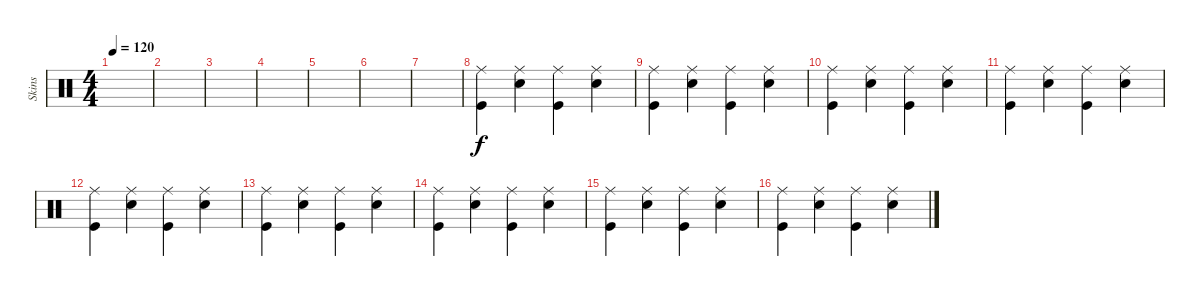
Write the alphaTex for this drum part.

\track ("Skins" "Skins") {instrument percussion}
\staff {score}
\articulation defaults
\ts (4 4)
\tempo 120
\clef neutral
\ks c
|
|
|
|
|
|
|
("Kick (hit)" "Ride (middle)").4{dy f} ("Snare (hit) 2" "Ride (middle)").4 ("Kick (hit)" "Ride (middle)").4 ("Snare (hit) 2" "Ride (middle)").4 |
("Kick (hit)" "Ride (middle)").4 ("Snare (hit) 2" "Ride (middle)").4 ("Kick (hit)" "Ride (middle)").4 ("Snare (hit) 2" "Ride (middle)").4 |
("Kick (hit)" "Ride (middle)").4 ("Snare (hit) 2" "Ride (middle)").4 ("Kick (hit)" "Ride (middle)").4 ("Snare (hit) 2" "Ride (middle)").4 |
("Kick (hit)" "Ride (middle)").4 ("Snare (hit) 2" "Ride (middle)").4 ("Kick (hit)" "Ride (middle)").4 ("Snare (hit) 2" "Ride (middle)").4 |
("Kick (hit)" "Ride (middle)").4 ("Snare (hit) 2" "Ride (middle)").4 ("Kick (hit)" "Ride (middle)").4 ("Snare (hit) 2" "Ride (middle)").4 |
("Kick (hit)" "Ride (middle)").4 ("Snare (hit) 2" "Ride (middle)").4 ("Kick (hit)" "Ride (middle)").4 ("Snare (hit) 2" "Ride (middle)").4 |
("Kick (hit)" "Ride (middle)").4 ("Snare (hit) 2" "Ride (middle)").4 ("Kick (hit)" "Ride (middle)").4 ("Snare (hit) 2" "Ride (middle)").4 |
("Kick (hit)" "Ride (middle)").4 ("Snare (hit) 2" "Ride (middle)").4 ("Kick (hit)" "Ride (middle)").4 ("Snare (hit) 2" "Ride (middle)").4 |
("Kick (hit)" "Ride (middle)").4 ("Snare (hit) 2" "Ride (middle)").4 ("Kick (hit)" "Ride (middle)").4 ("Snare (hit) 2" "Ride (middle)").4
